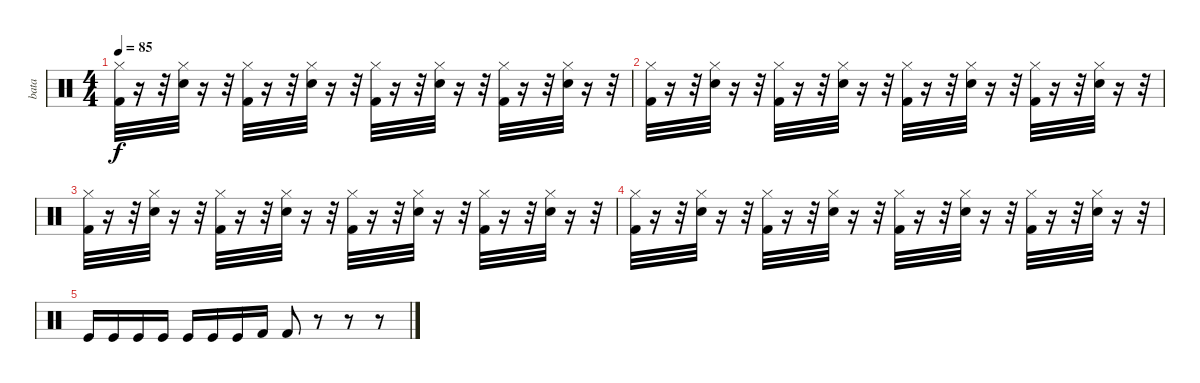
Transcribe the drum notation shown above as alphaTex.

\track ("bata" "bata") {instrument percussion}
\staff {score}
\articulation defaults
\ts (4 4)
\tempo 85
\clef neutral
\ks c
("Hi-Hat (closed)" "Kick (hit) 2").32{dy f} r.16 r.32 ("Hi-Hat (closed)" "Electric Snare (hit)").32 r.16 r.32 ("Hi-Hat (closed)" "Kick (hit) 2").32 r.16 r.32 ("Hi-Hat (closed)" "Electric Snare (hit)").32 r.16 r.32 ("Hi-Hat (closed)" "Kick (hit) 2").32 r.16 r.32 ("Hi-Hat (closed)" "Electric Snare (hit)").32 r.16 r.32 ("Hi-Hat (closed)" "Kick (hit) 2").32 r.16 r.32 ("Hi-Hat (closed)" "Electric Snare (hit)").32 r.16 r.32 |
("Hi-Hat (closed)" "Kick (hit) 2").32 r.16 r.32 ("Hi-Hat (closed)" "Electric Snare (hit)").32 r.16 r.32 ("Hi-Hat (closed)" "Kick (hit) 2").32 r.16 r.32 ("Hi-Hat (closed)" "Electric Snare (hit)").32 r.16 r.32 ("Hi-Hat (closed)" "Kick (hit) 2").32 r.16 r.32 ("Hi-Hat (closed)" "Electric Snare (hit)").32 r.16 r.32 ("Hi-Hat (closed)" "Kick (hit) 2").32 r.16 r.32 ("Hi-Hat (closed)" "Electric Snare (hit)").32 r.16 r.32 |
("Hi-Hat (closed)" "Kick (hit) 2").32 r.16 r.32 ("Hi-Hat (closed)" "Electric Snare (hit)").32 r.16 r.32 ("Hi-Hat (closed)" "Kick (hit) 2").32 r.16 r.32 ("Hi-Hat (closed)" "Electric Snare (hit)").32 r.16 r.32 ("Hi-Hat (closed)" "Kick (hit) 2").32 r.16 r.32 ("Hi-Hat (closed)" "Electric Snare (hit)").32 r.16 r.32 ("Hi-Hat (closed)" "Kick (hit) 2").32 r.16 r.32 ("Hi-Hat (closed)" "Electric Snare (hit)").32 r.16 r.32 |
("Hi-Hat (closed)" "Kick (hit) 2").32 r.16 r.32 ("Hi-Hat (closed)" "Electric Snare (hit)").32 r.16 r.32 ("Hi-Hat (closed)" "Kick (hit) 2").32 r.16 r.32 ("Hi-Hat (closed)" "Electric Snare (hit)").32 r.16 r.32 ("Hi-Hat (closed)" "Kick (hit) 2").32 r.16 r.32 ("Hi-Hat (closed)" "Electric Snare (hit)").32 r.16 r.32 ("Hi-Hat (closed)" "Kick (hit) 2").32 r.16 r.32 ("Hi-Hat (closed)" "Electric Snare (hit)").32 r.16 r.32 |
"Kick (hit)".16 "Kick (hit)".16 "Kick (hit)".16 "Kick (hit)".16 "Kick (hit)".16 "Kick (hit)".16 "Kick (hit)".16 "Kick (hit) 2".16 "Kick (hit) 2".8 r.8 r.8 r.8
